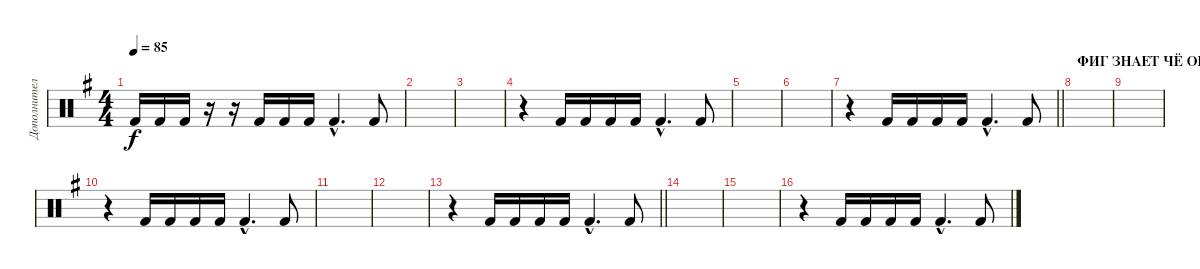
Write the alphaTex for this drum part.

\track ("Дополнительно" "Дополнител") {instrument percussion}
\staff {score}
\articulation defaults
\ts (4 4)
\tempo 85
\clef neutral
\ks eminor "Kick (hit) 2".16{dy f} "Kick (hit) 2".16 "Kick (hit) 2".16
r.16 r.16 "Kick (hit) 2".16 "Kick (hit) 2".16 "Kick (hit) 2".16 "Kick (hit) 2"{hac}.4{d} "Kick (hit) 2".8 |
|
|
r.4 "Kick (hit) 2".16 "Kick (hit) 2".16 "Kick (hit) 2".16 "Kick (hit) 2".16 "Kick (hit) 2"{hac}.4{d} "Kick (hit) 2".8 |
|
|
\barLineRight lightlight
r.4 "Kick (hit) 2".16 "Kick (hit) 2".16 "Kick (hit) 2".16 "Kick (hit) 2".16 "Kick (hit) 2"{hac}.4{d} "Kick (hit) 2".8 |
\section ("" "ФИГ ЗНАЕТ ЧЁ ОН ТУТ ИГРАЕТ")
|
|
r.4 "Kick (hit) 2".16 "Kick (hit) 2".16 "Kick (hit) 2".16 "Kick (hit) 2".16 "Kick (hit) 2"{hac}.4{d} "Kick (hit) 2".8 |
|
|
\barLineRight lightlight
r.4 "Kick (hit) 2".16 "Kick (hit) 2".16 "Kick (hit) 2".16 "Kick (hit) 2".16 "Kick (hit) 2"{hac}.4{d} "Kick (hit) 2".8 |
|
|
r.4 "Kick (hit) 2".16 "Kick (hit) 2".16 "Kick (hit) 2".16 "Kick (hit) 2".16 "Kick (hit) 2"{hac}.4{d} "Kick (hit) 2".8
